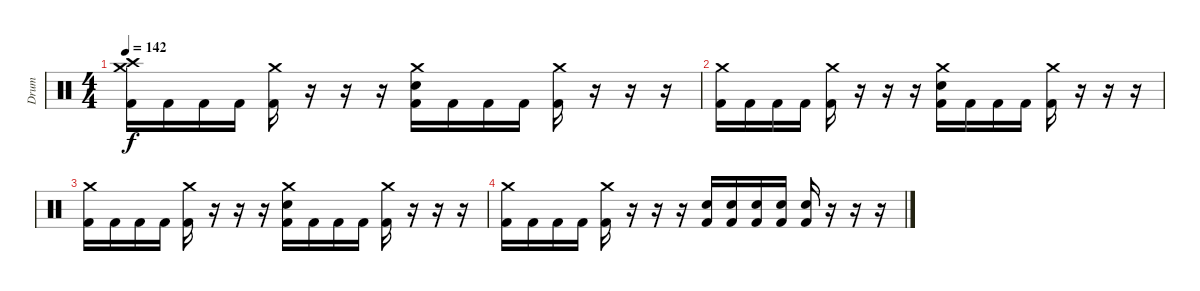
\track ("Drum" "Drum") {instrument percussion}
\staff {score}
\articulation defaults
\ts (4 4)
\tempo 142
\clef neutral
\ks c
("Crash high (hit)" "Crash medium (hit)" "Kick (hit) 2").16{dy f} "Kick (hit) 2".16 "Kick (hit) 2".16 "Kick (hit) 2".16 ("Crash medium (hit)" "Kick (hit) 2").16 r.16 r.16 r.16 ("Crash medium (hit)" "Snare (hit) 2" "Kick (hit) 2").16 "Kick (hit) 2".16 "Kick (hit) 2".16 "Kick (hit) 2".16 ("Crash medium (hit)" "Kick (hit) 2").16 r.16 r.16 r.16 |
("Crash medium (hit)" "Kick (hit) 2").16 "Kick (hit) 2".16 "Kick (hit) 2".16 "Kick (hit) 2".16 ("Crash medium (hit)" "Kick (hit) 2").16 r.16 r.16 r.16 ("Crash medium (hit)" "Snare (hit) 2" "Kick (hit) 2").16 "Kick (hit) 2".16 "Kick (hit) 2".16 "Kick (hit) 2".16 ("Crash medium (hit)" "Kick (hit) 2").16 r.16 r.16 r.16 |
("Crash medium (hit)" "Kick (hit) 2").16 "Kick (hit) 2".16 "Kick (hit) 2".16 "Kick (hit) 2".16 ("Crash medium (hit)" "Kick (hit) 2").16 r.16 r.16 r.16 ("Crash medium (hit)" "Snare (hit) 2" "Kick (hit) 2").16 "Kick (hit) 2".16 "Kick (hit) 2".16 "Kick (hit) 2".16 ("Crash medium (hit)" "Kick (hit) 2").16 r.16 r.16 r.16 |
("Crash medium (hit)" "Kick (hit) 2").16 "Kick (hit) 2".16 "Kick (hit) 2".16 "Kick (hit) 2".16 ("Crash medium (hit)" "Kick (hit) 2").16 r.16 r.16 r.16 ("Snare (hit) 2" "Kick (hit) 2").16 ("Snare (hit) 2" "Kick (hit) 2").16 ("Snare (hit) 2" "Kick (hit) 2").16 ("Snare (hit) 2" "Kick (hit) 2").16 ("Snare (hit) 2" "Kick (hit) 2").16 r.16 r.16 r.16
